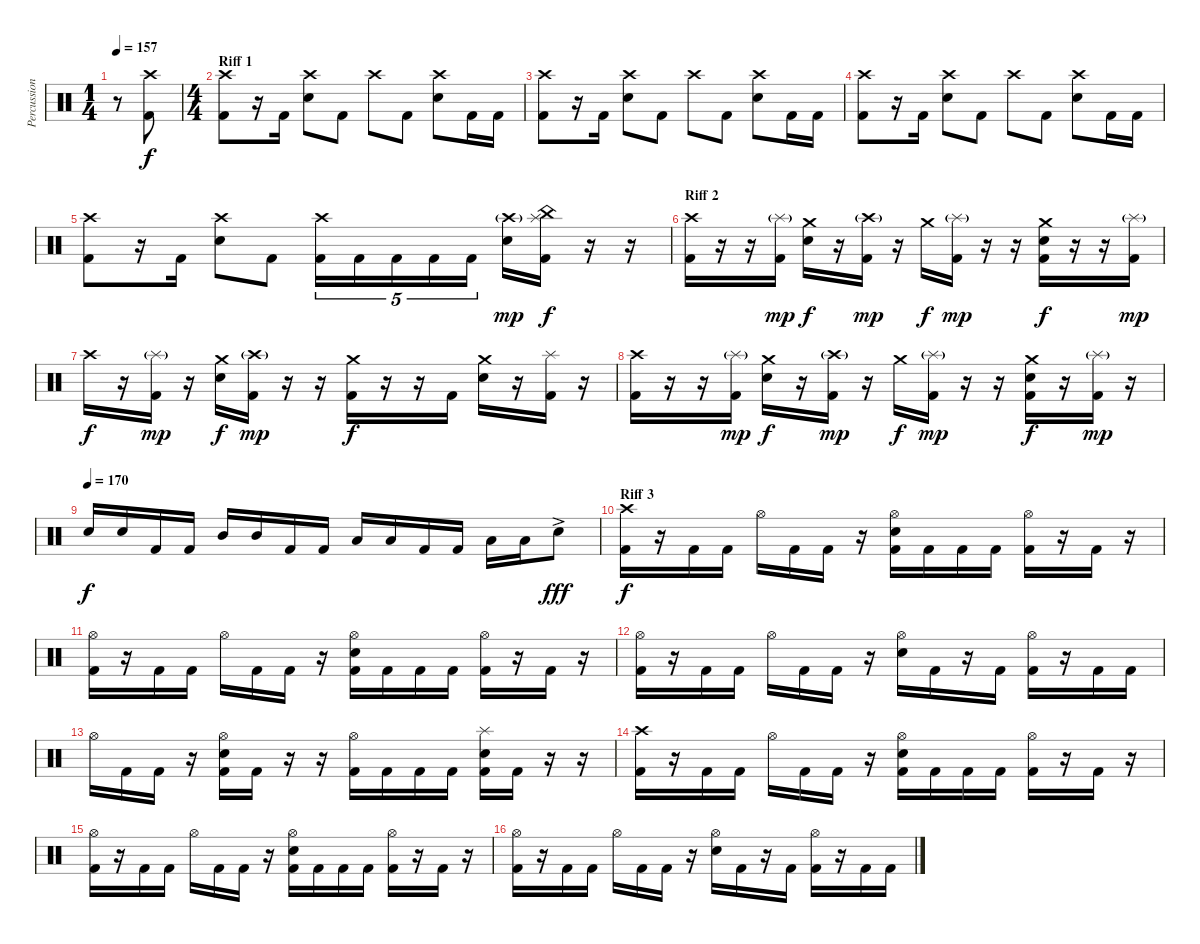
\track ("Percussion" "Percussion") {instrument percussion}
\staff {score}
\articulation defaults
\ts (1 4)
\tempo 157
\tempo 170
\tempo 157
\clef neutral
\ks c
r.8{dy f} ("Crash high (hit)" "Kick (hit) 2").8 |
\ts (4 4)
\section ("" "Riff 1")
("Crash high (hit)" "Kick (hit) 2").8 r.16 "Kick (hit) 2".16 ("Crash high (hit)" "Electric Snare (hit)").8 "Kick (hit) 2".8 "Crash high (hit)".8 "Kick (hit) 2".8 ("Crash high (hit)" "Electric Snare (hit)").8 "Kick (hit) 2".16 "Kick (hit) 2".16 |
("Crash high (hit)" "Kick (hit) 2").8 r.16 "Kick (hit) 2".16 ("Crash high (hit)" "Electric Snare (hit)").8 "Kick (hit) 2".8 "Crash high (hit)".8 "Kick (hit) 2".8 ("Crash high (hit)" "Electric Snare (hit)").8 "Kick (hit) 2".16 "Kick (hit) 2".16 |
("Crash high (hit)" "Kick (hit) 2").8 r.16 "Kick (hit) 2".16 ("Crash high (hit)" "Electric Snare (hit)").8 "Kick (hit) 2".8 "Crash high (hit)".8 "Kick (hit) 2".8 ("Crash high (hit)" "Electric Snare (hit)").8 "Kick (hit) 2".16 "Kick (hit) 2".16 |
("Crash high (hit)" "Kick (hit) 2").8 r.16 "Kick (hit) 2".16 ("Crash high (hit)" "Electric Snare (hit)").8 "Kick (hit) 2".8 ("Crash high (hit)" "Kick (hit) 2").16{tu (5 4)} "Kick (hit) 2".16{tu (5 4)} "Kick (hit) 2".16{tu (5 4)} "Kick (hit) 2".16{tu (5 4)} "Kick (hit) 2".16{tu (5 4)} ("Crash high (hit)"{g} "Electric Snare (hit)").16{dy mp} ("China (hit)" "Splash (hit)" "Kick (hit) 2").16{dy f} r.16 r.16 |
\section ("" "Riff 2")
("Crash high (hit)" "Kick (hit) 2").16 r.16 r.16 ("Splash (hit)"{g} "Kick (hit) 2").16{dy mp} ("Crash medium (hit)" "Electric Snare (hit)").16{dy f} r.16 ("Crash high (hit)"{g} "Kick (hit) 2").16{dy mp} r.16 "Crash medium (hit)".16{dy f} ("Splash (hit)"{g} "Kick (hit) 2").16{dy mp} r.16 r.16 ("Crash medium (hit)" "Electric Snare (hit)" "Kick (hit) 2").16{dy f} r.16 r.16 ("Splash (hit)"{g} "Kick (hit) 2").16{dy mp} |
"Crash high (hit)".16{dy f} r.16 ("Splash (hit)"{g} "Kick (hit) 2").16{dy mp} r.16 ("Crash medium (hit)" "Electric Snare (hit)").16{dy f} ("Crash high (hit)"{g} "Kick (hit) 2").16{dy mp} r.16 r.16 ("Crash medium (hit)" "Kick (hit) 2").16{dy f} r.16 r.16 "Kick (hit) 2".16 ("Crash medium (hit)" "Electric Snare (hit)").16 r.16 ("Splash (hit)" "Kick (hit) 2").16 r.16 |
("Crash high (hit)" "Kick (hit) 2").16 r.16 r.16 ("Splash (hit)"{g} "Kick (hit) 2").16{dy mp} ("Crash medium (hit)" "Electric Snare (hit)").16{dy f} r.16 ("Crash high (hit)"{g} "Kick (hit) 2").16{dy mp} r.16 "Crash medium (hit)".16{dy f} ("Splash (hit)"{g} "Kick (hit) 2").16{dy mp} r.16 r.16 ("Crash medium (hit)" "Electric Snare (hit)" "Kick (hit) 2").16{dy f} r.16 ("Splash (hit)"{g} "Kick (hit) 2").16{dy mp} r.16 |
\tempo (170)
"Electric Snare (hit)".16{dy f} "Electric Snare (hit)".16 "Kick (hit) 2".16 "Kick (hit) 2".16 "Mid Tom (hit)".16 "Mid Tom (hit)".16 "Kick (hit) 2".16 "Kick (hit) 2".16 "Low Tom (hit)".16 "Low Tom (hit)".16 "Kick (hit) 2".16 "Kick (hit) 2".16 "Low Tom (hit)".16 "Low Floor Tom (hit)".16 "Electric Snare (hit)"{ac}.8{dy fff} |
\section ("" "Riff 3")
("Crash high (hit)" "Kick (hit) 2").16{dy f} r.16 "Kick (hit) 2".16 "Kick (hit) 2".16 "Hi-Hat (open)".16 "Kick (hit) 2".16 "Kick (hit) 2".16 r.16 ("Hi-Hat (open)" "Electric Snare (hit)" "Kick (hit) 2").16 "Kick (hit) 2".16 "Kick (hit) 2".16 "Kick (hit) 2".16 ("Hi-Hat (open)" "Kick (hit) 2").16 r.16 "Kick (hit) 2".16 r.16 |
("Hi-Hat (open)" "Kick (hit) 2").16 r.16 "Kick (hit) 2".16 "Kick (hit) 2".16 "Hi-Hat (open)".16 "Kick (hit) 2".16 "Kick (hit) 2".16 r.16 ("Hi-Hat (open)" "Electric Snare (hit)" "Kick (hit) 2").16 "Kick (hit) 2".16 "Kick (hit) 2".16 "Kick (hit) 2".16 ("Hi-Hat (open)" "Kick (hit) 2").16 r.16 "Kick (hit) 2".16 r.16 |
("Hi-Hat (open)" "Kick (hit) 2").16 r.16 "Kick (hit) 2".16 "Kick (hit) 2".16 "Hi-Hat (open)".16 "Kick (hit) 2".16 "Kick (hit) 2".16 r.16 ("Hi-Hat (open)" "Electric Snare (hit)").16 "Kick (hit) 2".16 r.16 "Kick (hit) 2".16 ("Hi-Hat (open)" "Kick (hit) 2").16 r.16 "Kick (hit) 2".16 "Kick (hit) 2".16 |
"Hi-Hat (open)".16 "Kick (hit) 2".16 "Kick (hit) 2".16 r.16 ("Hi-Hat (open)" "Electric Snare (hit)" "Kick (hit) 2").16 "Kick (hit) 2".16 r.16 r.16 ("Hi-Hat (open)" "Kick (hit) 2").16 "Kick (hit) 2".16 "Kick (hit) 2".16 "Kick (hit) 2".16 ("Splash (hit)" "Electric Snare (hit)" "Kick (hit) 2").16 "Kick (hit) 2".16 r.16 r.16 |
("Crash high (hit)" "Kick (hit) 2").16 r.16 "Kick (hit) 2".16 "Kick (hit) 2".16 "Hi-Hat (open)".16 "Kick (hit) 2".16 "Kick (hit) 2".16 r.16 ("Hi-Hat (open)" "Electric Snare (hit)" "Kick (hit) 2").16 "Kick (hit) 2".16 "Kick (hit) 2".16 "Kick (hit) 2".16 ("Hi-Hat (open)" "Kick (hit) 2").16 r.16 "Kick (hit) 2".16 r.16 |
("Hi-Hat (open)" "Kick (hit) 2").16 r.16 "Kick (hit) 2".16 "Kick (hit) 2".16 "Hi-Hat (open)".16 "Kick (hit) 2".16 "Kick (hit) 2".16 r.16 ("Hi-Hat (open)" "Electric Snare (hit)" "Kick (hit) 2").16 "Kick (hit) 2".16 "Kick (hit) 2".16 "Kick (hit) 2".16 ("Hi-Hat (open)" "Kick (hit) 2").16 r.16 "Kick (hit) 2".16 r.16 |
("Hi-Hat (open)" "Kick (hit) 2").16 r.16 "Kick (hit) 2".16 "Kick (hit) 2".16 "Hi-Hat (open)".16 "Kick (hit) 2".16 "Kick (hit) 2".16 r.16 ("Hi-Hat (open)" "Electric Snare (hit)").16 "Kick (hit) 2".16 r.16 "Kick (hit) 2".16 ("Hi-Hat (open)" "Kick (hit) 2").16 r.16 "Kick (hit) 2".16 "Kick (hit) 2".16
